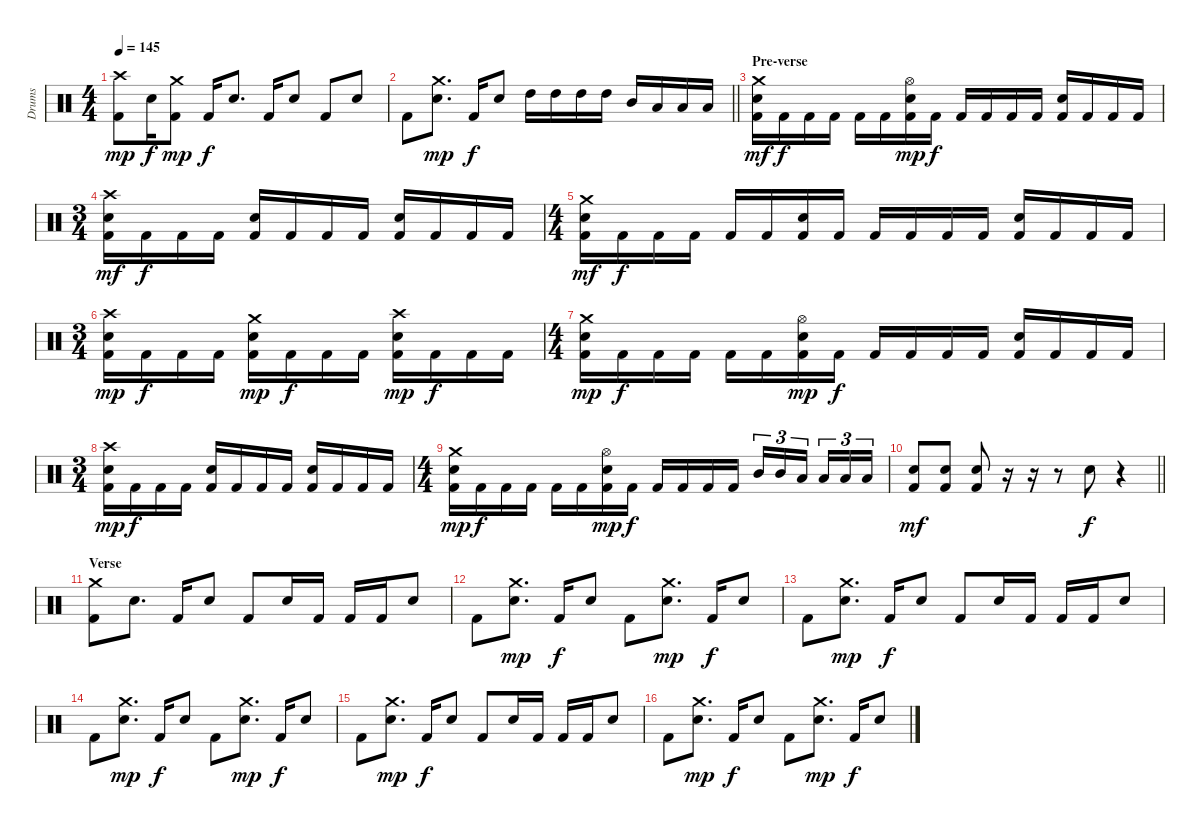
\track ("Drums" "Drums") {instrument percussion}
\staff {score}
\articulation defaults
\ts (4 4)
\tempo 145
\clef neutral
\ks c
("Crash high (hit)" "Kick (hit) 2").8{dy mp} "Snare (hit) 2".16{dy f} ("Crash medium (hit)" "Kick (hit) 2").8{dy mp} "Kick (hit) 2".16{dy f} "Snare (hit) 2".8{d} "Kick (hit) 2".16 "Snare (hit) 2".8 "Kick (hit) 2".8 "Snare (hit) 2".8 |
\barLineRight lightlight "Kick (hit) 2".8
("Crash medium (hit)" "Snare (hit) 2").8{d dy mp} "Kick (hit) 2".16{dy f} "Snare (hit) 2".8 "High Tom (hit)".16 "High Tom (hit)".16 "High Tom (hit)".16 "High Tom (hit)".16 "Mid Tom (hit)".16 "Low Tom (hit)".16 "Low Floor Tom (hit)".16 "Low Floor Tom (hit)".16 |
\section ("" "Pre-verse")
("Crash medium (hit)" "Snare (hit) 2" "Kick (hit) 2").16{dy mf} "Kick (hit) 2".16{dy f} "Kick (hit) 2".16 "Kick (hit) 2".16 "Kick (hit) 2".16 "Kick (hit) 2".16 ("Hi-Hat (open)" "Snare (hit) 2" "Kick (hit) 2").16{dy mp} "Kick (hit) 2".16{dy f} "Kick (hit) 2".16 "Kick (hit) 2".16 "Kick (hit) 2".16 "Kick (hit) 2".16 ("Snare (hit) 2" "Kick (hit) 2").16 "Kick (hit) 2".16 "Kick (hit) 2".16 "Kick (hit) 2".16 |
\ts (3 4)
("Crash high (hit)" "Snare (hit) 2" "Kick (hit) 2").16{dy mf} "Kick (hit) 2".16{dy f} "Kick (hit) 2".16 "Kick (hit) 2".16 ("Snare (hit) 2" "Kick (hit) 2").16 "Kick (hit) 2".16 "Kick (hit) 2".16 "Kick (hit) 2".16 ("Snare (hit) 2" "Kick (hit) 2").16 "Kick (hit) 2".16 "Kick (hit) 2".16 "Kick (hit) 2".16 |
\ts (4 4)
("Crash medium (hit)" "Snare (hit) 2" "Kick (hit) 2").16{dy mf} "Kick (hit) 2".16{dy f} "Kick (hit) 2".16 "Kick (hit) 2".16 "Kick (hit) 2".16 "Kick (hit) 2".16 ("Snare (hit) 2" "Kick (hit) 2").16 "Kick (hit) 2".16 "Kick (hit) 2".16 "Kick (hit) 2".16 "Kick (hit) 2".16 "Kick (hit) 2".16 ("Snare (hit) 2" "Kick (hit) 2").16 "Kick (hit) 2".16 "Kick (hit) 2".16 "Kick (hit) 2".16 |
\ts (3 4)
("Crash high (hit)" "Snare (hit) 2" "Kick (hit) 2").16{dy mp} "Kick (hit) 2".16{dy f} "Kick (hit) 2".16 "Kick (hit) 2".16 ("Crash medium (hit)" "Snare (hit) 2" "Kick (hit) 2").16{dy mp} "Kick (hit) 2".16{dy f} "Kick (hit) 2".16 "Kick (hit) 2".16 ("Crash high (hit)" "Snare (hit) 2" "Kick (hit) 2").16{dy mp} "Kick (hit) 2".16{dy f} "Kick (hit) 2".16 "Kick (hit) 2".16 |
\ts (4 4)
("Crash medium (hit)" "Snare (hit) 2" "Kick (hit) 2").16{dy mp} "Kick (hit) 2".16{dy f} "Kick (hit) 2".16 "Kick (hit) 2".16 "Kick (hit) 2".16 "Kick (hit) 2".16 ("Hi-Hat (open)" "Snare (hit) 2" "Kick (hit) 2").16{dy mp} "Kick (hit) 2".16{dy f} "Kick (hit) 2".16 "Kick (hit) 2".16 "Kick (hit) 2".16 "Kick (hit) 2".16 ("Snare (hit) 2" "Kick (hit) 2").16 "Kick (hit) 2".16 "Kick (hit) 2".16 "Kick (hit) 2".16 |
\ts (3 4)
("Crash high (hit)" "Snare (hit) 2" "Kick (hit) 2").16{dy mp} "Kick (hit) 2".16{dy f} "Kick (hit) 2".16 "Kick (hit) 2".16 ("Snare (hit) 2" "Kick (hit) 2").16 "Kick (hit) 2".16 "Kick (hit) 2".16 "Kick (hit) 2".16 ("Snare (hit) 2" "Kick (hit) 2").16 "Kick (hit) 2".16 "Kick (hit) 2".16 "Kick (hit) 2".16 |
\ts (4 4)
("Crash medium (hit)" "Snare (hit) 2" "Kick (hit) 2").16{dy mp} "Kick (hit) 2".16{dy f} "Kick (hit) 2".16 "Kick (hit) 2".16 "Kick (hit) 2".16 "Kick (hit) 2".16 ("Hi-Hat (open)" "Snare (hit) 2" "Kick (hit) 2").16{dy mp} "Kick (hit) 2".16{dy f} "Kick (hit) 2".16 "Kick (hit) 2".16 "Kick (hit) 2".16 "Kick (hit) 2".16 "Mid Tom (hit)".16{tu (3 2)} "Mid Tom (hit)".16{tu (3 2)} "Low Tom (hit)".16{tu (3 2) beam splitsecondary} "Low Tom (hit)".16{tu (3 2)} "Low Floor Tom (hit)".16{tu (3 2)} "Low Floor Tom (hit)".16{tu (3 2)} |
\barLineRight lightlight
("Snare (hit) 2" "Kick (hit) 2").8{dy mf} ("Snare (hit) 2" "Kick (hit) 2").8 ("Snare (hit) 2" "Kick (hit) 2").8 r.16 r.16 r.8 "Snare (hit) 2".8{dy f} r.4 |
\section ("" "Verse")
("Crash medium (hit)" "Kick (hit) 2").8 "Snare (hit) 2".8{d} "Kick (hit) 2".16 "Snare (hit) 2".8 "Kick (hit) 2".8 "Snare (hit) 2".16 "Kick (hit) 2".16 "Kick (hit) 2".16 "Kick (hit) 2".16 "Snare (hit) 2".8 |
"Kick (hit) 2".8 ("Crash medium (hit)" "Snare (hit) 2").8{d dy mp} "Kick (hit) 2".16{dy f} "Snare (hit) 2".8 "Kick (hit) 2".8 ("Crash medium (hit)" "Snare (hit) 2").8{d dy mp} "Kick (hit) 2".16{dy f} "Snare (hit) 2".8 |
"Kick (hit) 2".8 ("Crash medium (hit)" "Snare (hit) 2").8{d dy mp} "Kick (hit) 2".16{dy f} "Snare (hit) 2".8 "Kick (hit) 2".8 "Snare (hit) 2".16 "Kick (hit) 2".16 "Kick (hit) 2".16 "Kick (hit) 2".16 "Snare (hit) 2".8 |
"Kick (hit) 2".8 ("Crash medium (hit)" "Snare (hit) 2").8{d dy mp} "Kick (hit) 2".16{dy f} "Snare (hit) 2".8 "Kick (hit) 2".8 ("Crash medium (hit)" "Snare (hit) 2").8{d dy mp} "Kick (hit) 2".16{dy f} "Snare (hit) 2".8 |
"Kick (hit) 2".8 ("Crash medium (hit)" "Snare (hit) 2").8{d dy mp} "Kick (hit) 2".16{dy f} "Snare (hit) 2".8 "Kick (hit) 2".8 "Snare (hit) 2".16 "Kick (hit) 2".16 "Kick (hit) 2".16 "Kick (hit) 2".16 "Snare (hit) 2".8 |
"Kick (hit) 2".8 ("Crash medium (hit)" "Snare (hit) 2").8{d dy mp} "Kick (hit) 2".16{dy f} "Snare (hit) 2".8 "Kick (hit) 2".8 ("Crash medium (hit)" "Snare (hit) 2").8{d dy mp} "Kick (hit) 2".16{dy f} "Snare (hit) 2".8
